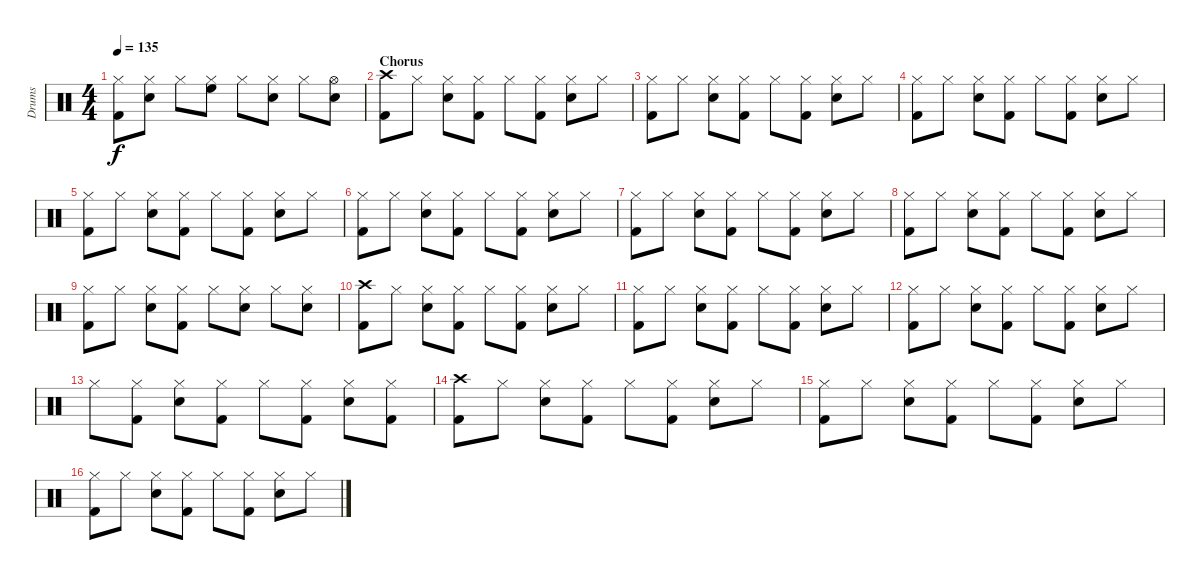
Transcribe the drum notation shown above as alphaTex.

\track ("Drums" "Drums") {instrument percussion}
\staff {score}
\articulation defaults
\ts (4 4)
\tempo 135
\clef neutral
\ks c
("Kick (hit) 2" "Hi-Hat (closed)").8{dy f} ("Snare (hit) 2" "Hi-Hat (closed)").8 "Hi-Hat (closed)".8 ("High Floor Tom (hit)" "Hi-Hat (closed)").8 "Hi-Hat (closed)".8 ("Snare (hit) 2" "Hi-Hat (closed)").8 "Hi-Hat (closed)".8 ("Snare (hit) 2" "Hi-Hat (open)").8 |
\section ("" "Chorus")
("Crash high (hit)" "Kick (hit) 2").8 "Hi-Hat (closed)".8 ("Snare (hit) 2" "Hi-Hat (closed)").8 ("Kick (hit) 2" "Hi-Hat (closed)").8 "Hi-Hat (closed)".8 ("Kick (hit) 2" "Hi-Hat (closed)").8 ("Snare (hit) 2" "Hi-Hat (closed)").8 "Hi-Hat (closed)".8 |
("Kick (hit) 2" "Hi-Hat (closed)").8 "Hi-Hat (closed)".8 ("Snare (hit) 2" "Hi-Hat (closed)").8 ("Kick (hit) 2" "Hi-Hat (closed)").8 "Hi-Hat (closed)".8 ("Kick (hit) 2" "Hi-Hat (closed)").8 ("Snare (hit) 2" "Hi-Hat (closed)").8 "Hi-Hat (closed)".8 |
("Kick (hit) 2" "Hi-Hat (closed)").8 "Hi-Hat (closed)".8 ("Snare (hit) 2" "Hi-Hat (closed)").8 ("Kick (hit) 2" "Hi-Hat (closed)").8 "Hi-Hat (closed)".8 ("Kick (hit) 2" "Hi-Hat (closed)").8 ("Snare (hit) 2" "Hi-Hat (closed)").8 "Hi-Hat (closed)".8 |
("Kick (hit) 2" "Hi-Hat (closed)").8 "Hi-Hat (closed)".8 ("Snare (hit) 2" "Hi-Hat (closed)").8 ("Kick (hit) 2" "Hi-Hat (closed)").8 "Hi-Hat (closed)".8 ("Kick (hit) 2" "Hi-Hat (closed)").8 ("Snare (hit) 2" "Hi-Hat (closed)").8 "Hi-Hat (closed)".8 |
("Kick (hit) 2" "Hi-Hat (closed)").8 "Hi-Hat (closed)".8 ("Snare (hit) 2" "Hi-Hat (closed)").8 ("Kick (hit) 2" "Hi-Hat (closed)").8 "Hi-Hat (closed)".8 ("Kick (hit) 2" "Hi-Hat (closed)").8 ("Snare (hit) 2" "Hi-Hat (closed)").8 "Hi-Hat (closed)".8 |
("Kick (hit) 2" "Hi-Hat (closed)").8 "Hi-Hat (closed)".8 ("Snare (hit) 2" "Hi-Hat (closed)").8 ("Kick (hit) 2" "Hi-Hat (closed)").8 "Hi-Hat (closed)".8 ("Kick (hit) 2" "Hi-Hat (closed)").8 ("Snare (hit) 2" "Hi-Hat (closed)").8 "Hi-Hat (closed)".8 |
("Kick (hit) 2" "Hi-Hat (closed)").8 "Hi-Hat (closed)".8 ("Snare (hit) 2" "Hi-Hat (closed)").8 ("Kick (hit) 2" "Hi-Hat (closed)").8 "Hi-Hat (closed)".8 ("Kick (hit) 2" "Hi-Hat (closed)").8 ("Snare (hit) 2" "Hi-Hat (closed)").8 "Hi-Hat (closed)".8 |
("Kick (hit) 2" "Hi-Hat (closed)").8 "Hi-Hat (closed)".8 ("Snare (hit) 2" "Hi-Hat (closed)").8 ("Kick (hit) 2" "Hi-Hat (closed)").8 "Hi-Hat (closed)".8 ("Snare (hit) 2" "Hi-Hat (closed)").8 "Hi-Hat (closed)".8 ("Snare (hit) 2" "Hi-Hat (closed)").8 |
("Crash high (hit)" "Kick (hit) 2").8 "Hi-Hat (closed)".8 ("Snare (hit) 2" "Hi-Hat (closed)").8 ("Kick (hit) 2" "Hi-Hat (closed)").8 "Hi-Hat (closed)".8 ("Kick (hit) 2" "Hi-Hat (closed)").8 ("Snare (hit) 2" "Hi-Hat (closed)").8 "Hi-Hat (closed)".8 |
("Kick (hit) 2" "Hi-Hat (closed)").8 "Hi-Hat (closed)".8 ("Snare (hit) 2" "Hi-Hat (closed)").8 ("Kick (hit) 2" "Hi-Hat (closed)").8 "Hi-Hat (closed)".8 ("Kick (hit) 2" "Hi-Hat (closed)").8 ("Snare (hit) 2" "Hi-Hat (closed)").8 "Hi-Hat (closed)".8 |
("Kick (hit) 2" "Hi-Hat (closed)").8 "Hi-Hat (closed)".8 ("Snare (hit) 2" "Hi-Hat (closed)").8 ("Kick (hit) 2" "Hi-Hat (closed)").8 "Hi-Hat (closed)".8 ("Kick (hit) 2" "Hi-Hat (closed)").8 ("Snare (hit) 2" "Hi-Hat (closed)").8 "Hi-Hat (closed)".8 |
"Hi-Hat (closed)".8 ("Kick (hit) 2" "Hi-Hat (closed)").8 ("Snare (hit) 2" "Hi-Hat (closed)").8 ("Kick (hit) 2" "Hi-Hat (closed)").8 "Hi-Hat (closed)".8 ("Kick (hit) 2" "Hi-Hat (closed)").8 ("Snare (hit) 2" "Hi-Hat (closed)").8 ("Kick (hit) 2" "Hi-Hat (closed)").8 |
("Crash high (hit)" "Kick (hit) 2").8 "Hi-Hat (closed)".8 ("Snare (hit) 2" "Hi-Hat (closed)").8 ("Kick (hit) 2" "Hi-Hat (closed)").8 "Hi-Hat (closed)".8 ("Kick (hit) 2" "Hi-Hat (closed)").8 ("Snare (hit) 2" "Hi-Hat (closed)").8 "Hi-Hat (closed)".8 |
("Kick (hit) 2" "Hi-Hat (closed)").8 "Hi-Hat (closed)".8 ("Snare (hit) 2" "Hi-Hat (closed)").8 ("Kick (hit) 2" "Hi-Hat (closed)").8 "Hi-Hat (closed)".8 ("Kick (hit) 2" "Hi-Hat (closed)").8 ("Snare (hit) 2" "Hi-Hat (closed)").8 "Hi-Hat (closed)".8 |
("Kick (hit) 2" "Hi-Hat (closed)").8 "Hi-Hat (closed)".8 ("Snare (hit) 2" "Hi-Hat (closed)").8 ("Kick (hit) 2" "Hi-Hat (closed)").8 "Hi-Hat (closed)".8 ("Kick (hit) 2" "Hi-Hat (closed)").8 ("Snare (hit) 2" "Hi-Hat (closed)").8 "Hi-Hat (closed)".8
